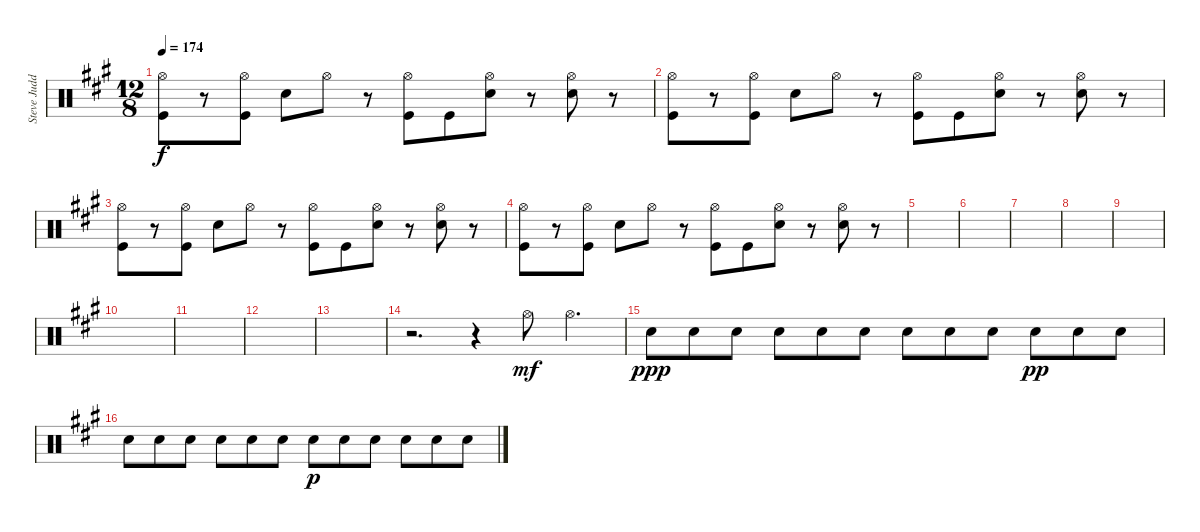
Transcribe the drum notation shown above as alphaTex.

\track ("Steve Judd (Drums)" "Steve Judd") {instrument percussion}
\staff {score}
\articulation defaults
\ts (12 8)
\tempo 174
\clef neutral
\ks a
("Hi-Hat (open)" "Kick (hit)").8{dy f} r.8 ("Hi-Hat (open)" "Kick (hit)").8 "Snare (hit) 2".8 "Hi-Hat (open)".8 r.8 ("Hi-Hat (open)" "Kick (hit)").8 "Kick (hit)".8 ("Hi-Hat (open)" "Snare (hit) 2").8 r.8 ("Hi-Hat (open)" "Snare (hit) 2").8 r.8 |
("Hi-Hat (open)" "Kick (hit)").8 r.8 ("Hi-Hat (open)" "Kick (hit)").8 "Snare (hit) 2".8 "Hi-Hat (open)".8 r.8 ("Hi-Hat (open)" "Kick (hit)").8 "Kick (hit)".8 ("Hi-Hat (open)" "Snare (hit) 2").8 r.8 ("Hi-Hat (open)" "Snare (hit) 2").8 r.8 |
("Hi-Hat (open)" "Kick (hit)").8 r.8 ("Hi-Hat (open)" "Kick (hit)").8 "Snare (hit) 2".8 "Hi-Hat (open)".8 r.8 ("Hi-Hat (open)" "Kick (hit)").8 "Kick (hit)".8 ("Hi-Hat (open)" "Snare (hit) 2").8 r.8 ("Hi-Hat (open)" "Snare (hit) 2").8 r.8 |
("Hi-Hat (open)" "Kick (hit)").8 r.8 ("Hi-Hat (open)" "Kick (hit)").8 "Snare (hit) 2".8 "Hi-Hat (open)".8 r.8 ("Hi-Hat (open)" "Kick (hit)").8 "Kick (hit)".8 ("Hi-Hat (open)" "Snare (hit) 2").8 r.8 ("Hi-Hat (open)" "Snare (hit) 2").8 r.8 |
|
|
|
|
|
|
|
|
|
r.2{d} r.4 "Hi-Hat (open)".8{dy mf} "Hi-Hat (open)".4{d} |
"Snare (hit) 2".8{dy ppp} "Snare (hit) 2".8 "Snare (hit) 2".8 "Snare (hit) 2".8 "Snare (hit) 2".8 "Snare (hit) 2".8 "Snare (hit) 2".8 "Snare (hit) 2".8 "Snare (hit) 2".8 "Snare (hit) 2".8{dy pp} "Snare (hit) 2".8 "Snare (hit) 2".8 |
"Snare (hit) 2".8 "Snare (hit) 2".8 "Snare (hit) 2".8 "Snare (hit) 2".8 "Snare (hit) 2".8 "Snare (hit) 2".8 "Snare (hit) 2".8{dy p} "Snare (hit) 2".8 "Snare (hit) 2".8 "Snare (hit) 2".8 "Snare (hit) 2".8 "Snare (hit) 2".8
